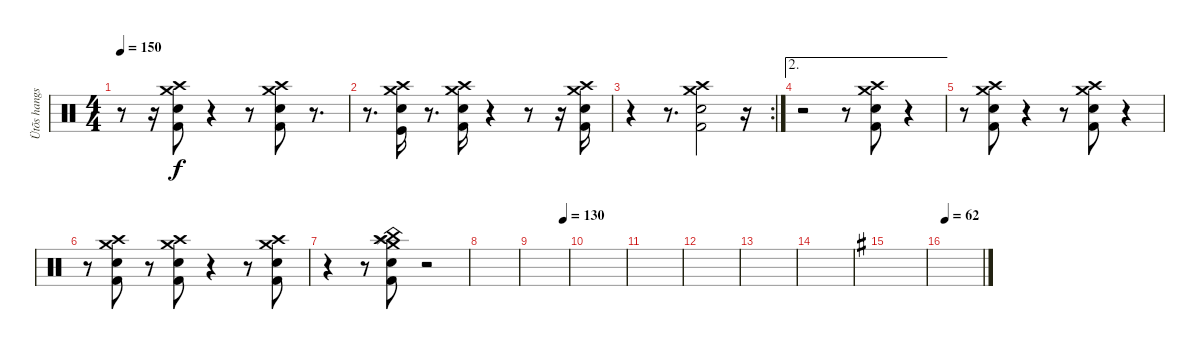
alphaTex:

\track ("Ütõs hangszer" "Ütõs hangs") {instrument percussion}
\staff {score}
\articulation defaults
\ts (4 4)
\tempo 150
\clef neutral
\ks c
r.8{dy f} r.16 ("Crash high (hit)" "Kick (hit) 2" "Snare (hit) 2" "Crash medium (hit)").8 r.4 r.8 ("Crash high (hit)" "Kick (hit) 2" "Snare (hit) 2" "Crash medium (hit)").8 r.8{d} |
r.8{d} ("Crash high (hit)" "Kick (hit)" "Snare (hit) 2" "Crash medium (hit)").16 r.8{d} ("Crash high (hit)" "Kick (hit) 2" "Snare (hit) 2" "Crash medium (hit)").16 r.4 r.8 r.16 ("Crash high (hit)" "Kick (hit) 2" "Snare (hit) 2" "Crash medium (hit)").16 |
\rc 2
r.4 r.8{d} ("Crash high (hit)" "Kick (hit) 2" "Snare (hit) 2" "Crash medium (hit)").2 r.16 |
\ae 2
r.2 r.8 ("Crash high (hit)" "Kick (hit) 2" "Snare (hit) 2" "Crash medium (hit)").8 r.4 |
r.8 ("Crash high (hit)" "Kick (hit) 2" "Snare (hit) 2" "Crash medium (hit)").8 r.4 r.8 ("Crash high (hit)" "Kick (hit) 2" "Snare (hit) 2" "Crash medium (hit)").8 r.4 |
r.8 ("Crash high (hit)" "Kick (hit) 2" "Snare (hit) 2" "Crash medium (hit)").8 r.8 ("Crash high (hit)" "Kick (hit) 2" "Snare (hit) 2" "Crash medium (hit)").8 r.4 r.8 ("Crash high (hit)" "Kick (hit) 2" "Snare (hit) 2" "Crash medium (hit)").8 |
r.4 r.8 ("China (hit)" "Crash high (hit)" "Kick (hit) 2" "Snare (hit) 2" "Crash medium (hit)" "Splash (hit)").8 r.2 |
|
\tempo (130 0.875)
|
|
|
|
|
|
\ks g
|
\tempo 62
